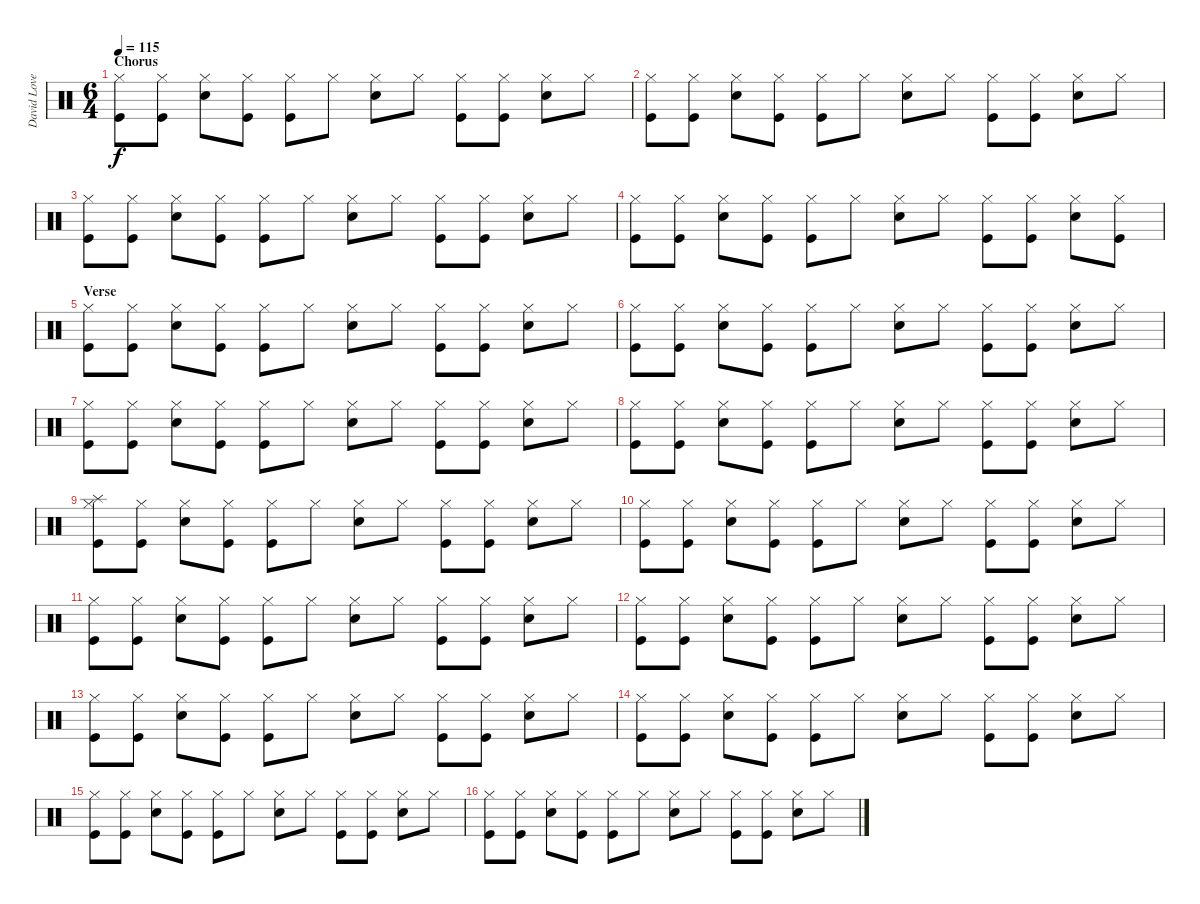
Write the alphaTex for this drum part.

\track ("David Lovering" "David Love") {instrument percussion}
\staff {score}
\articulation defaults
\ts (6 4)
\section ("" "Chorus")
\tempo 115
\clef neutral
\ks c
("Hi-Hat (closed)" "Kick (hit)").8{dy f} ("Hi-Hat (closed)" "Kick (hit)").8 ("Hi-Hat (closed)" "Snare (hit) 2").8 ("Hi-Hat (closed)" "Kick (hit)").8 ("Hi-Hat (closed)" "Kick (hit)").8 "Hi-Hat (closed)".8 ("Hi-Hat (closed)" "Snare (hit) 2").8 "Hi-Hat (closed)".8 ("Hi-Hat (closed)" "Kick (hit)").8 ("Hi-Hat (closed)" "Kick (hit)").8 ("Hi-Hat (closed)" "Snare (hit) 2").8 "Hi-Hat (closed)".8 |
("Hi-Hat (closed)" "Kick (hit)").8 ("Hi-Hat (closed)" "Kick (hit)").8 ("Hi-Hat (closed)" "Snare (hit) 2").8 ("Hi-Hat (closed)" "Kick (hit)").8 ("Hi-Hat (closed)" "Kick (hit)").8 "Hi-Hat (closed)".8 ("Hi-Hat (closed)" "Snare (hit) 2").8 "Hi-Hat (closed)".8 ("Hi-Hat (closed)" "Kick (hit)").8 ("Hi-Hat (closed)" "Kick (hit)").8 ("Hi-Hat (closed)" "Snare (hit) 2").8 "Hi-Hat (closed)".8 |
("Hi-Hat (closed)" "Kick (hit)").8 ("Hi-Hat (closed)" "Kick (hit)").8 ("Hi-Hat (closed)" "Snare (hit) 2").8 ("Hi-Hat (closed)" "Kick (hit)").8 ("Hi-Hat (closed)" "Kick (hit)").8 "Hi-Hat (closed)".8 ("Hi-Hat (closed)" "Snare (hit) 2").8 "Hi-Hat (closed)".8 ("Hi-Hat (closed)" "Kick (hit)").8 ("Hi-Hat (closed)" "Kick (hit)").8 ("Hi-Hat (closed)" "Snare (hit) 2").8 "Hi-Hat (closed)".8 |
("Hi-Hat (closed)" "Kick (hit)").8 ("Hi-Hat (closed)" "Kick (hit)").8 ("Hi-Hat (closed)" "Snare (hit) 2").8 ("Hi-Hat (closed)" "Kick (hit)").8 ("Hi-Hat (closed)" "Kick (hit)").8 "Hi-Hat (closed)".8 ("Hi-Hat (closed)" "Snare (hit) 2").8 "Hi-Hat (closed)".8 ("Hi-Hat (closed)" "Kick (hit)").8 ("Hi-Hat (closed)" "Kick (hit)").8 ("Hi-Hat (closed)" "Snare (hit) 2").8 ("Hi-Hat (closed)" "Kick (hit)").8 |
\section ("" "Verse ")
("Hi-Hat (closed)" "Kick (hit)").8 ("Hi-Hat (closed)" "Kick (hit)").8 ("Hi-Hat (closed)" "Snare (hit) 2").8 ("Hi-Hat (closed)" "Kick (hit)").8 ("Hi-Hat (closed)" "Kick (hit)").8 "Hi-Hat (closed)".8 ("Hi-Hat (closed)" "Snare (hit) 2").8 "Hi-Hat (closed)".8 ("Hi-Hat (closed)" "Kick (hit)").8 ("Hi-Hat (closed)" "Kick (hit)").8 ("Hi-Hat (closed)" "Snare (hit) 2").8 "Hi-Hat (closed)".8 |
("Hi-Hat (closed)" "Kick (hit)").8 ("Hi-Hat (closed)" "Kick (hit)").8 ("Hi-Hat (closed)" "Snare (hit) 2").8 ("Hi-Hat (closed)" "Kick (hit)").8 ("Hi-Hat (closed)" "Kick (hit)").8 "Hi-Hat (closed)".8 ("Hi-Hat (closed)" "Snare (hit) 2").8 "Hi-Hat (closed)".8 ("Hi-Hat (closed)" "Kick (hit)").8 ("Hi-Hat (closed)" "Kick (hit)").8 ("Hi-Hat (closed)" "Snare (hit) 2").8 "Hi-Hat (closed)".8 |
("Hi-Hat (closed)" "Kick (hit)").8 ("Hi-Hat (closed)" "Kick (hit)").8 ("Hi-Hat (closed)" "Snare (hit) 2").8 ("Hi-Hat (closed)" "Kick (hit)").8 ("Hi-Hat (closed)" "Kick (hit)").8 "Hi-Hat (closed)".8 ("Hi-Hat (closed)" "Snare (hit) 2").8 "Hi-Hat (closed)".8 ("Hi-Hat (closed)" "Kick (hit)").8 ("Hi-Hat (closed)" "Kick (hit)").8 ("Hi-Hat (closed)" "Snare (hit) 2").8 "Hi-Hat (closed)".8 |
("Hi-Hat (closed)" "Kick (hit)").8 ("Hi-Hat (closed)" "Kick (hit)").8 ("Hi-Hat (closed)" "Snare (hit) 2").8 ("Hi-Hat (closed)" "Kick (hit)").8 ("Hi-Hat (closed)" "Kick (hit)").8 "Hi-Hat (closed)".8 ("Hi-Hat (closed)" "Snare (hit) 2").8 "Hi-Hat (closed)".8 ("Hi-Hat (closed)" "Kick (hit)").8 ("Hi-Hat (closed)" "Kick (hit)").8 ("Hi-Hat (closed)" "Snare (hit) 2").8 "Hi-Hat (closed)".8 |
("Hi-Hat (closed)" "Splash (hit)" "Kick (hit)").8 ("Hi-Hat (closed)" "Kick (hit)").8 ("Hi-Hat (closed)" "Snare (hit) 2").8 ("Hi-Hat (closed)" "Kick (hit)").8 ("Hi-Hat (closed)" "Kick (hit)").8 "Hi-Hat (closed)".8 ("Hi-Hat (closed)" "Snare (hit) 2").8 "Hi-Hat (closed)".8 ("Hi-Hat (closed)" "Kick (hit)").8 ("Hi-Hat (closed)" "Kick (hit)").8 ("Hi-Hat (closed)" "Snare (hit) 2").8 "Hi-Hat (closed)".8 |
("Hi-Hat (closed)" "Kick (hit)").8 ("Hi-Hat (closed)" "Kick (hit)").8 ("Hi-Hat (closed)" "Snare (hit) 2").8 ("Hi-Hat (closed)" "Kick (hit)").8 ("Hi-Hat (closed)" "Kick (hit)").8 "Hi-Hat (closed)".8 ("Hi-Hat (closed)" "Snare (hit) 2").8 "Hi-Hat (closed)".8 ("Hi-Hat (closed)" "Kick (hit)").8 ("Hi-Hat (closed)" "Kick (hit)").8 ("Hi-Hat (closed)" "Snare (hit) 2").8 "Hi-Hat (closed)".8 |
("Hi-Hat (closed)" "Kick (hit)").8 ("Hi-Hat (closed)" "Kick (hit)").8 ("Hi-Hat (closed)" "Snare (hit) 2").8 ("Hi-Hat (closed)" "Kick (hit)").8 ("Hi-Hat (closed)" "Kick (hit)").8 "Hi-Hat (closed)".8 ("Hi-Hat (closed)" "Snare (hit) 2").8 "Hi-Hat (closed)".8 ("Hi-Hat (closed)" "Kick (hit)").8 ("Hi-Hat (closed)" "Kick (hit)").8 ("Hi-Hat (closed)" "Snare (hit) 2").8 "Hi-Hat (closed)".8 |
("Hi-Hat (closed)" "Kick (hit)").8 ("Hi-Hat (closed)" "Kick (hit)").8 ("Hi-Hat (closed)" "Snare (hit) 2").8 ("Hi-Hat (closed)" "Kick (hit)").8 ("Hi-Hat (closed)" "Kick (hit)").8 "Hi-Hat (closed)".8 ("Hi-Hat (closed)" "Snare (hit) 2").8 "Hi-Hat (closed)".8 ("Hi-Hat (closed)" "Kick (hit)").8 ("Hi-Hat (closed)" "Kick (hit)").8 ("Hi-Hat (closed)" "Snare (hit) 2").8 "Hi-Hat (closed)".8 |
("Hi-Hat (closed)" "Kick (hit)").8 ("Hi-Hat (closed)" "Kick (hit)").8 ("Hi-Hat (closed)" "Snare (hit) 2").8 ("Hi-Hat (closed)" "Kick (hit)").8 ("Hi-Hat (closed)" "Kick (hit)").8 "Hi-Hat (closed)".8 ("Hi-Hat (closed)" "Snare (hit) 2").8 "Hi-Hat (closed)".8 ("Hi-Hat (closed)" "Kick (hit)").8 ("Hi-Hat (closed)" "Kick (hit)").8 ("Hi-Hat (closed)" "Snare (hit) 2").8 "Hi-Hat (closed)".8 |
("Hi-Hat (closed)" "Kick (hit)").8 ("Hi-Hat (closed)" "Kick (hit)").8 ("Hi-Hat (closed)" "Snare (hit) 2").8 ("Hi-Hat (closed)" "Kick (hit)").8 ("Hi-Hat (closed)" "Kick (hit)").8 "Hi-Hat (closed)".8 ("Hi-Hat (closed)" "Snare (hit) 2").8 "Hi-Hat (closed)".8 ("Hi-Hat (closed)" "Kick (hit)").8 ("Hi-Hat (closed)" "Kick (hit)").8 ("Hi-Hat (closed)" "Snare (hit) 2").8 "Hi-Hat (closed)".8 |
("Hi-Hat (closed)" "Kick (hit)").8 ("Hi-Hat (closed)" "Kick (hit)").8 ("Hi-Hat (closed)" "Snare (hit) 2").8 ("Hi-Hat (closed)" "Kick (hit)").8 ("Hi-Hat (closed)" "Kick (hit)").8 "Hi-Hat (closed)".8 ("Hi-Hat (closed)" "Snare (hit) 2").8 "Hi-Hat (closed)".8 ("Hi-Hat (closed)" "Kick (hit)").8 ("Hi-Hat (closed)" "Kick (hit)").8 ("Hi-Hat (closed)" "Snare (hit) 2").8 "Hi-Hat (closed)".8 |
("Hi-Hat (closed)" "Kick (hit)").8 ("Hi-Hat (closed)" "Kick (hit)").8 ("Hi-Hat (closed)" "Snare (hit) 2").8 ("Hi-Hat (closed)" "Kick (hit)").8 ("Hi-Hat (closed)" "Kick (hit)").8 "Hi-Hat (closed)".8 ("Hi-Hat (closed)" "Snare (hit) 2").8 "Hi-Hat (closed)".8 ("Hi-Hat (closed)" "Kick (hit)").8 ("Hi-Hat (closed)" "Kick (hit)").8 ("Hi-Hat (closed)" "Snare (hit) 2").8 "Hi-Hat (closed)".8
